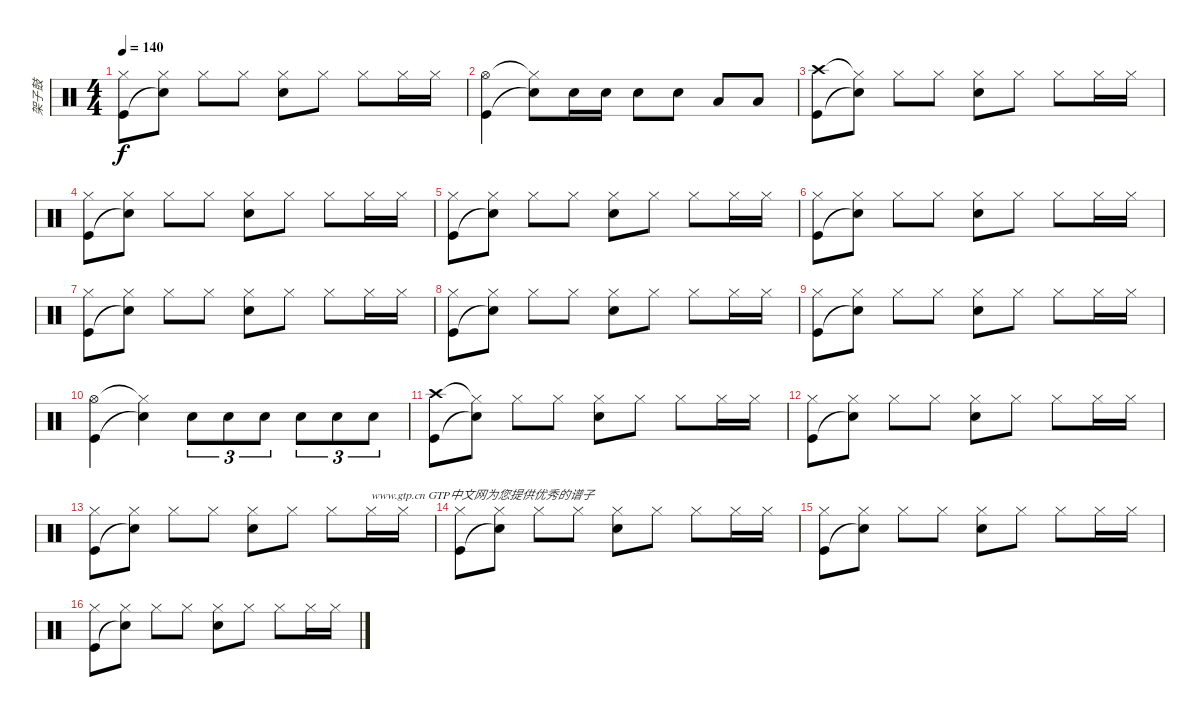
\track ("架子鼓" "架子鼓") {instrument percussion}
\staff {score}
\articulation defaults
\ts (4 4)
\tempo 140
\clef neutral
\ks c
("Hi-Hat (closed)" "Kick (hit)").8{dy f} ("Hi-Hat (closed)" "Snare (hit)"{t}).8 "Hi-Hat (closed)".8 "Hi-Hat (closed)".8 ("Hi-Hat (closed)" "Snare (hit) 2").8 "Hi-Hat (closed)".8 "Hi-Hat (closed)".8 "Hi-Hat (closed)".16 "Hi-Hat (closed)".16 |
("Hi-Hat (open)" "Kick (hit)").4 ("Hi-Hat (closed)"{t} "Snare (hit)"{t}).8 "Snare (hit) 2".16 "Snare (hit) 2".16 "Snare (hit) 2".8 "Snare (hit) 2".8 "Low Tom (hit)".8 "Low Tom (hit)".8 |
("Crash high (hit)" "Kick (hit)").8 ("Hi-Hat (closed)"{t} "Snare (hit)"{t}).8 "Hi-Hat (closed)".8 "Hi-Hat (closed)".8 ("Hi-Hat (closed)" "Snare (hit) 2").8 "Hi-Hat (closed)".8 "Hi-Hat (closed)".8 "Hi-Hat (closed)".16 "Hi-Hat (closed)".16 |
("Hi-Hat (closed)" "Kick (hit)").8 ("Hi-Hat (closed)" "Snare (hit)"{t}).8 "Hi-Hat (closed)".8 "Hi-Hat (closed)".8 ("Hi-Hat (closed)" "Snare (hit) 2").8 "Hi-Hat (closed)".8 "Hi-Hat (closed)".8 "Hi-Hat (closed)".16 "Hi-Hat (closed)".16 |
("Hi-Hat (closed)" "Kick (hit)").8 ("Hi-Hat (closed)" "Snare (hit)"{t}).8 "Hi-Hat (closed)".8 "Hi-Hat (closed)".8 ("Hi-Hat (closed)" "Snare (hit) 2").8 "Hi-Hat (closed)".8 "Hi-Hat (closed)".8 "Hi-Hat (closed)".16 "Hi-Hat (closed)".16 |
("Hi-Hat (closed)" "Kick (hit)").8 ("Hi-Hat (closed)" "Snare (hit)"{t}).8 "Hi-Hat (closed)".8 "Hi-Hat (closed)".8 ("Hi-Hat (closed)" "Snare (hit) 2").8 "Hi-Hat (closed)".8 "Hi-Hat (closed)".8 "Hi-Hat (closed)".16 "Hi-Hat (closed)".16 |
("Hi-Hat (closed)" "Kick (hit)").8 ("Hi-Hat (closed)" "Snare (hit)"{t}).8 "Hi-Hat (closed)".8 "Hi-Hat (closed)".8 ("Hi-Hat (closed)" "Snare (hit) 2").8 "Hi-Hat (closed)".8 "Hi-Hat (closed)".8 "Hi-Hat (closed)".16 "Hi-Hat (closed)".16 |
("Hi-Hat (closed)" "Kick (hit)").8 ("Hi-Hat (closed)" "Snare (hit)"{t}).8 "Hi-Hat (closed)".8 "Hi-Hat (closed)".8 ("Hi-Hat (closed)" "Snare (hit) 2").8 "Hi-Hat (closed)".8 "Hi-Hat (closed)".8 "Hi-Hat (closed)".16 "Hi-Hat (closed)".16 |
("Hi-Hat (closed)" "Kick (hit)").8 ("Hi-Hat (closed)" "Snare (hit)"{t}).8 "Hi-Hat (closed)".8 "Hi-Hat (closed)".8 ("Hi-Hat (closed)" "Snare (hit) 2").8 "Hi-Hat (closed)".8 "Hi-Hat (closed)".8 "Hi-Hat (closed)".16 "Hi-Hat (closed)".16 |
("Hi-Hat (open)" "Kick (hit)").4 ("Hi-Hat (closed)"{t} "Snare (hit)"{t}).4 "Snare (hit) 2".8{tu (3 2)} "Snare (hit) 2".8{tu (3 2)} "Snare (hit) 2".8{tu (3 2)} "Snare (hit) 2".8{tu (3 2)} "Snare (hit) 2".8{tu (3 2)} "Snare (hit) 2".8{tu (3 2)} |
("Crash high (hit)" "Kick (hit)").8 ("Hi-Hat (closed)"{t} "Snare (hit)"{t}).8 "Hi-Hat (closed)".8 "Hi-Hat (closed)".8 ("Hi-Hat (closed)" "Snare (hit) 2").8 "Hi-Hat (closed)".8 "Hi-Hat (closed)".8 "Hi-Hat (closed)".16 "Hi-Hat (closed)".16 |
("Hi-Hat (closed)" "Kick (hit)").8 ("Hi-Hat (closed)" "Snare (hit)"{t}).8 "Hi-Hat (closed)".8 "Hi-Hat (closed)".8 ("Hi-Hat (closed)" "Snare (hit) 2").8 "Hi-Hat (closed)".8 "Hi-Hat (closed)".8 "Hi-Hat (closed)".16 "Hi-Hat (closed)".16 |
("Hi-Hat (closed)" "Kick (hit)").8 ("Hi-Hat (closed)" "Snare (hit)"{t}).8 "Hi-Hat (closed)".8 "Hi-Hat (closed)".8 ("Hi-Hat (closed)" "Snare (hit) 2").8 "Hi-Hat (closed)".8 "Hi-Hat (closed)".8 "Hi-Hat (closed)".16{txt "www.gtp.cn GTP中文网为您提供优秀的谱子"} "Hi-Hat (closed)".16 |
("Hi-Hat (closed)" "Kick (hit)").8 ("Hi-Hat (closed)" "Snare (hit)"{t}).8 "Hi-Hat (closed)".8 "Hi-Hat (closed)".8 ("Hi-Hat (closed)" "Snare (hit) 2").8 "Hi-Hat (closed)".8 "Hi-Hat (closed)".8 "Hi-Hat (closed)".16 "Hi-Hat (closed)".16 |
("Hi-Hat (closed)" "Kick (hit)").8 ("Hi-Hat (closed)" "Snare (hit)"{t}).8 "Hi-Hat (closed)".8 "Hi-Hat (closed)".8 ("Hi-Hat (closed)" "Snare (hit) 2").8 "Hi-Hat (closed)".8 "Hi-Hat (closed)".8 "Hi-Hat (closed)".16 "Hi-Hat (closed)".16 |
("Hi-Hat (closed)" "Kick (hit)").8 ("Hi-Hat (closed)" "Snare (hit)"{t}).8 "Hi-Hat (closed)".8 "Hi-Hat (closed)".8 ("Hi-Hat (closed)" "Snare (hit) 2").8 "Hi-Hat (closed)".8 "Hi-Hat (closed)".8 "Hi-Hat (closed)".16 "Hi-Hat (closed)".16
